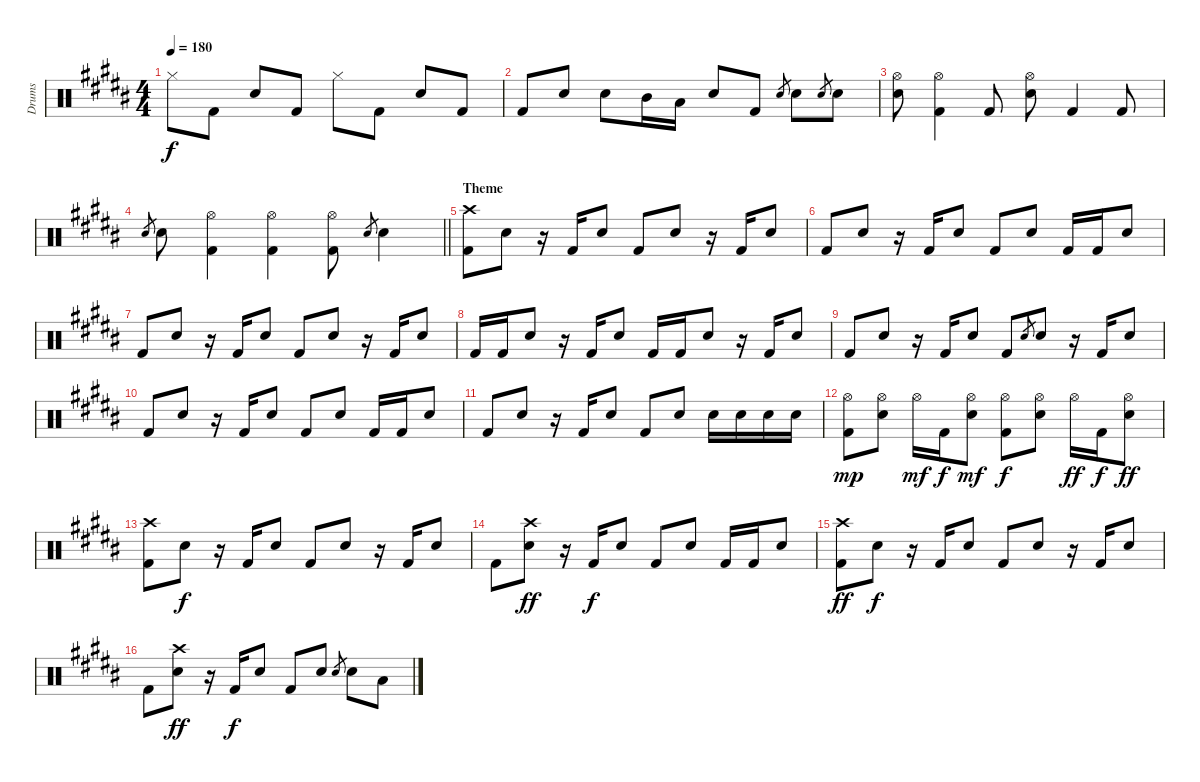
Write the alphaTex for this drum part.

\track ("Drums" "Drums") {instrument percussion}
\staff {score}
\articulation defaults
\ts (4 4)
\tempo 180
\clef neutral
\ks g#minor "Hi-Hat (closed)".8{dy f} "Kick (hit) 2".8 "Snare (hit) 2".8 "Kick (hit) 2".8 "Hi-Hat (closed)".8 "Kick (hit) 2".8 "Snare (hit) 2".8 "Kick (hit) 2".8
|
"Kick (hit) 2".8 "Snare (hit) 2".8 "Snare (hit) 2".8 "Mid Tom (hit)".16 "Low Tom (hit)".16 "Snare (hit) 2".8 "Kick (hit) 2".8 "Snare (hit) 2".8{gr} "Snare (hit) 2".8 "Snare (hit) 2".8{gr} "Snare (hit) 2".8 |
("Snare (hit) 2" "Hi-Hat (open)").8 ("Kick (hit) 2" "Hi-Hat (open)").4 "Kick (hit) 2".8 ("Snare (hit) 2" "Hi-Hat (open)").8 "Kick (hit) 2".4 "Kick (hit) 2".8 |
\barLineRight lightlight "Snare (hit) 2".8{gr} "Snare (hit) 2".8
("Kick (hit) 2" "Hi-Hat (open)").4 ("Kick (hit) 2" "Hi-Hat (open)").4 ("Kick (hit) 2" "Hi-Hat (open)").8 "Snare (hit) 2".8{gr} "Snare (hit) 2".4 |
\section ("" "Theme")
("Kick (hit) 2" "Crash high (hit)").8 "Snare (hit) 2".8 r.16 "Kick (hit) 2".16 "Snare (hit) 2".8 "Kick (hit) 2".8 "Snare (hit) 2".8 r.16 "Kick (hit) 2".16 "Snare (hit) 2".8 |
"Kick (hit) 2".8 "Snare (hit) 2".8 r.16 "Kick (hit) 2".16 "Snare (hit) 2".8 "Kick (hit) 2".8 "Snare (hit) 2".8 "Kick (hit) 2".16 "Kick (hit) 2".16 "Snare (hit) 2".8 |
"Kick (hit) 2".8 "Snare (hit) 2".8 r.16 "Kick (hit) 2".16 "Snare (hit) 2".8 "Kick (hit) 2".8 "Snare (hit) 2".8 r.16 "Kick (hit) 2".16 "Snare (hit) 2".8 |
"Kick (hit) 2".16 "Kick (hit) 2".16 "Snare (hit) 2".8 r.16 "Kick (hit) 2".16 "Snare (hit) 2".8 "Kick (hit) 2".16 "Kick (hit) 2".16 "Snare (hit) 2".8 r.16 "Kick (hit) 2".16 "Snare (hit) 2".8 |
"Kick (hit) 2".8 "Snare (hit) 2".8 r.16 "Kick (hit) 2".16 "Snare (hit) 2".8 "Kick (hit) 2".8 "Snare (hit) 2".8{gr} "Snare (hit) 2".8 r.16 "Kick (hit) 2".16 "Snare (hit) 2".8 |
"Kick (hit) 2".8 "Snare (hit) 2".8 r.16 "Kick (hit) 2".16 "Snare (hit) 2".8 "Kick (hit) 2".8 "Snare (hit) 2".8 "Kick (hit) 2".16 "Kick (hit) 2".16 "Snare (hit) 2".8 |
"Kick (hit) 2".8 "Snare (hit) 2".8 r.16 "Kick (hit) 2".16 "Snare (hit) 2".8 "Kick (hit) 2".8 "Snare (hit) 2".8 "Snare (hit) 2".16 "Snare (hit) 2".16 "Snare (hit) 2".16 "Snare (hit) 2".16 |
("Kick (hit) 2" "Hi-Hat (open)").8{dy mp} ("Snare (hit) 2" "Hi-Hat (open)").8 "Hi-Hat (open)".16{dy mf} "Kick (hit) 2".16{dy f} ("Snare (hit) 2" "Hi-Hat (open)").8{dy mf} ("Kick (hit) 2" "Hi-Hat (open)").8{dy f} ("Snare (hit) 2" "Hi-Hat (open)").8 "Hi-Hat (open)".16{dy ff} "Kick (hit) 2".16{dy f} ("Snare (hit) 2" "Hi-Hat (open)").8{dy ff} |
("Kick (hit) 2" "Crash high (hit)").8 "Snare (hit) 2".8{dy f} r.16 "Kick (hit) 2".16 "Snare (hit) 2".8 "Kick (hit) 2".8 "Snare (hit) 2".8 r.16 "Kick (hit) 2".16 "Snare (hit) 2".8 |
"Kick (hit) 2".8 ("Snare (hit) 2" "Crash high (hit)").8{dy ff} r.16 "Kick (hit) 2".16{dy f} "Snare (hit) 2".8 "Kick (hit) 2".8 "Snare (hit) 2".8 "Kick (hit) 2".16 "Kick (hit) 2".16 "Snare (hit) 2".8 |
("Kick (hit) 2" "Crash high (hit)").8{dy ff} "Snare (hit) 2".8{dy f} r.16 "Kick (hit) 2".16 "Snare (hit) 2".8 "Kick (hit) 2".8 "Snare (hit) 2".8 r.16 "Kick (hit) 2".16 "Snare (hit) 2".8 |
"Kick (hit) 2".8 ("Snare (hit) 2" "Crash high (hit)").8{dy ff} r.16 "Kick (hit) 2".16{dy f} "Snare (hit) 2".8 "Kick (hit) 2".8 "Snare (hit) 2".8 "Snare (hit) 2".8{gr} "Snare (hit) 2".8 "Low Tom (hit)".8
